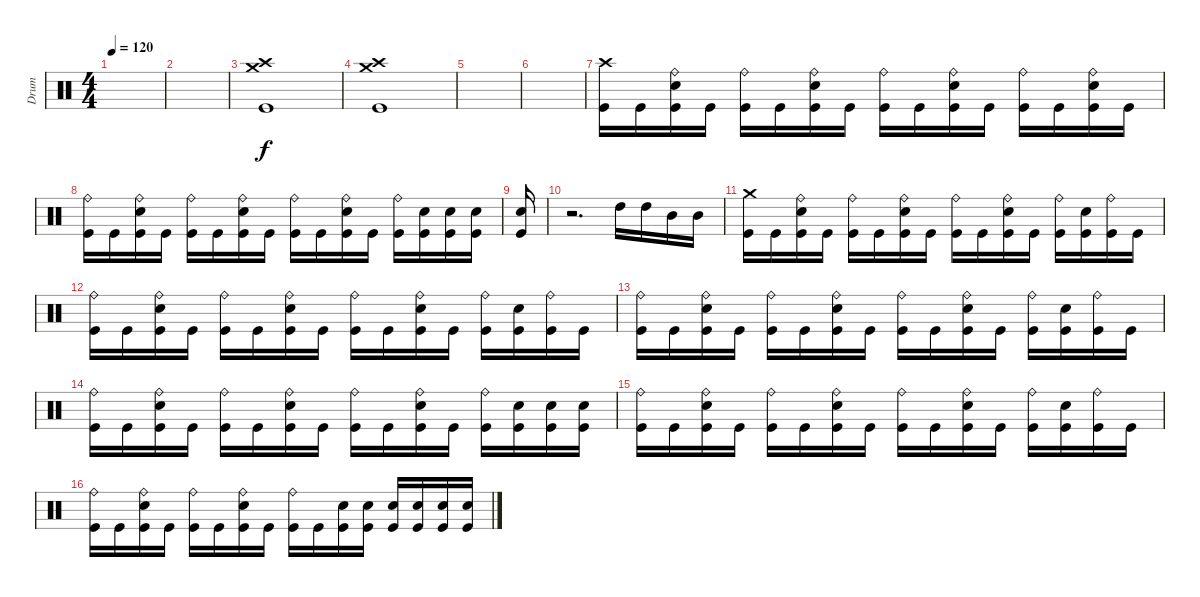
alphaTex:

\track ("Drum" "Drum") {instrument percussion}
\staff {score}
\articulation defaults
\ts (4 4)
\tempo 120
\clef neutral
\ks c
|
|
("Crash medium (hit)" "Crash high (hit)" "Kick (hit)").1 |
("Crash medium (hit)" "Crash high (hit)" "Kick (hit)").1 |
|
|
("Crash high (hit)" "Kick (hit)").16 "Kick (hit)".16 ("Ride (bell)" "Electric Snare (hit)" "Kick (hit)").16 "Kick (hit)".16 ("Ride (bell)" "Kick (hit)").16 "Kick (hit)".16 ("Ride (bell)" "Electric Snare (hit)" "Kick (hit)").16 "Kick (hit)".16 ("Ride (bell)" "Kick (hit)").16 "Kick (hit)".16 ("Ride (bell)" "Electric Snare (hit)" "Kick (hit)").16 "Kick (hit)".16 ("Ride (bell)" "Kick (hit)").16 "Kick (hit)".16 ("Ride (bell)" "Electric Snare (hit)" "Kick (hit)").16 "Kick (hit)".16 |
("Ride (bell)" "Kick (hit)").16 "Kick (hit)".16 ("Ride (bell)" "Electric Snare (hit)" "Kick (hit)").16 "Kick (hit)".16 ("Ride (bell)" "Kick (hit)").16 "Kick (hit)".16 ("Ride (bell)" "Electric Snare (hit)" "Kick (hit)").16 "Kick (hit)".16 ("Ride (bell)" "Kick (hit)").16 "Kick (hit)".16 ("Ride (bell)" "Electric Snare (hit)" "Kick (hit)").16 "Kick (hit)".16 ("Ride (bell)" "Kick (hit)").16 ("Electric Snare (hit)" "Kick (hit)").16 ("Electric Snare (hit)" "Kick (hit)").16 ("Electric Snare (hit)" "Kick (hit)").16 |
("Electric Snare (hit)" "Kick (hit)").16 |
r.2{d} "High Tom (hit)".16 "High Tom (hit)".16 "Mid Tom (hit)".16 "Mid Tom (hit)".16 |
("Crash medium (hit)" "Kick (hit)").16 "Kick (hit)".16 ("Ride (bell)" "Electric Snare (hit)" "Kick (hit)").16 "Kick (hit)".16 ("Ride (bell)" "Kick (hit)").16 "Kick (hit)".16 ("Ride (bell)" "Electric Snare (hit)" "Kick (hit)").16 "Kick (hit)".16 ("Ride (bell)" "Kick (hit)").16 "Kick (hit)".16 ("Ride (bell)" "Electric Snare (hit)" "Kick (hit)").16 "Kick (hit)".16 ("Ride (bell)" "Kick (hit)").16 ("Electric Snare (hit)" "Kick (hit)").16 ("Ride (bell)" "Kick (hit)").16 "Kick (hit)".16 |
("Ride (bell)" "Kick (hit)").16 "Kick (hit)".16 ("Ride (bell)" "Electric Snare (hit)" "Kick (hit)").16 "Kick (hit)".16 ("Ride (bell)" "Kick (hit)").16 "Kick (hit)".16 ("Ride (bell)" "Electric Snare (hit)" "Kick (hit)").16 "Kick (hit)".16 ("Ride (bell)" "Kick (hit)").16 "Kick (hit)".16 ("Ride (bell)" "Electric Snare (hit)" "Kick (hit)").16 "Kick (hit)".16 ("Ride (bell)" "Kick (hit)").16 ("Electric Snare (hit)" "Kick (hit)").16 ("Ride (bell)" "Kick (hit)").16 "Kick (hit)".16 |
("Ride (bell)" "Kick (hit)").16 "Kick (hit)".16 ("Ride (bell)" "Electric Snare (hit)" "Kick (hit)").16 "Kick (hit)".16 ("Ride (bell)" "Kick (hit)").16 "Kick (hit)".16 ("Ride (bell)" "Electric Snare (hit)" "Kick (hit)").16 "Kick (hit)".16 ("Ride (bell)" "Kick (hit)").16 "Kick (hit)".16 ("Ride (bell)" "Electric Snare (hit)" "Kick (hit)").16 "Kick (hit)".16 ("Ride (bell)" "Kick (hit)").16 ("Electric Snare (hit)" "Kick (hit)").16 ("Ride (bell)" "Kick (hit)").16 "Kick (hit)".16 |
("Ride (bell)" "Kick (hit)").16 "Kick (hit)".16 ("Ride (bell)" "Electric Snare (hit)" "Kick (hit)").16 "Kick (hit)".16 ("Ride (bell)" "Kick (hit)").16 "Kick (hit)".16 ("Ride (bell)" "Electric Snare (hit)" "Kick (hit)").16 "Kick (hit)".16 ("Ride (bell)" "Kick (hit)").16 "Kick (hit)".16 ("Ride (bell)" "Electric Snare (hit)" "Kick (hit)").16 "Kick (hit)".16 ("Ride (bell)" "Kick (hit)").16 ("Electric Snare (hit)" "Kick (hit)").16 ("Electric Snare (hit)" "Kick (hit)").16 ("Electric Snare (hit)" "Kick (hit)").16 |
("Ride (bell)" "Kick (hit)").16 "Kick (hit)".16 ("Ride (bell)" "Electric Snare (hit)" "Kick (hit)").16 "Kick (hit)".16 ("Ride (bell)" "Kick (hit)").16 "Kick (hit)".16 ("Ride (bell)" "Electric Snare (hit)" "Kick (hit)").16 "Kick (hit)".16 ("Ride (bell)" "Kick (hit)").16 "Kick (hit)".16 ("Ride (bell)" "Electric Snare (hit)" "Kick (hit)").16 "Kick (hit)".16 ("Ride (bell)" "Kick (hit)").16 ("Electric Snare (hit)" "Kick (hit)").16 ("Ride (bell)" "Kick (hit)").16 "Kick (hit)".16 |
("Ride (bell)" "Kick (hit)").16 "Kick (hit)".16 ("Ride (bell)" "Electric Snare (hit)" "Kick (hit)").16 "Kick (hit)".16 ("Ride (bell)" "Kick (hit)").16 "Kick (hit)".16 ("Ride (bell)" "Electric Snare (hit)" "Kick (hit)").16 "Kick (hit)".16 ("Ride (bell)" "Kick (hit)").16 "Kick (hit)".16 ("Electric Snare (hit)" "Kick (hit)").16 ("Electric Snare (hit)" "Kick (hit)").16 ("Electric Snare (hit)" "Kick (hit)").16 ("Electric Snare (hit)" "Kick (hit)").16 ("Electric Snare (hit)" "Kick (hit)").16 ("Electric Snare (hit)" "Kick (hit)").16
